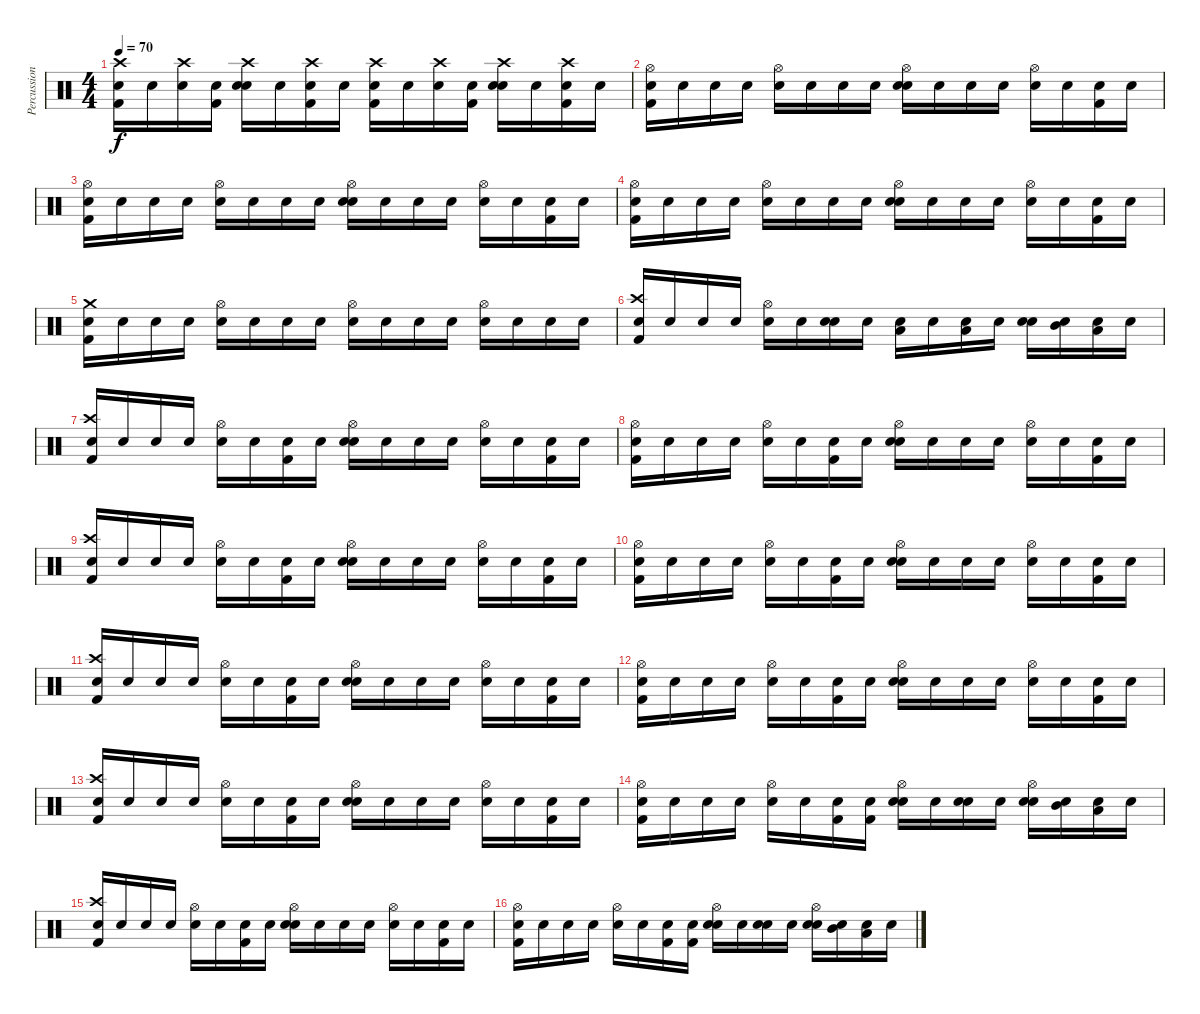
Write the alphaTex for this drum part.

\track ("Percussion" "Percussion") {instrument percussion}
\staff {score}
\articulation defaults
\ts (4 4)
\tempo 70
\clef neutral
\ks c
("Snare (hit)" "Crash high (hit)" "Kick (hit) 2").16{dy f} "Snare (hit)".16 ("Snare (hit)" "Crash high (hit)").16 ("Snare (hit)" "Kick (hit) 2").16 ("Snare (hit)" "Crash high (hit)" "Snare (hit) 2").16 "Snare (hit)".16 ("Snare (hit)" "Crash high (hit)" "Kick (hit) 2").16 "Snare (hit)".16 ("Snare (hit)" "Crash high (hit)" "Kick (hit) 2").16 "Snare (hit)".16 ("Snare (hit)" "Crash high (hit)").16 ("Snare (hit)" "Kick (hit) 2").16 ("Snare (hit)" "Crash high (hit)" "Snare (hit) 2").16 "Snare (hit)".16 ("Snare (hit)" "Crash high (hit)" "Kick (hit) 2").16 "Snare (hit)".16 |
("Snare (hit)" "Hi-Hat (open)" "Kick (hit) 2").16 "Snare (hit)".16 "Snare (hit)".16 "Snare (hit)".16 ("Snare (hit)" "Hi-Hat (open)").16 "Snare (hit)".16 "Snare (hit)".16 "Snare (hit)".16 ("Snare (hit)" "Hi-Hat (open)" "Snare (hit) 2").16 "Snare (hit)".16 "Snare (hit)".16 "Snare (hit)".16 ("Snare (hit)" "Hi-Hat (open)").16 "Snare (hit)".16 ("Snare (hit)" "Kick (hit) 2").16 "Snare (hit)".16 |
("Snare (hit)" "Hi-Hat (open)" "Kick (hit) 2").16 "Snare (hit)".16 "Snare (hit)".16 "Snare (hit)".16 ("Snare (hit)" "Hi-Hat (open)").16 "Snare (hit)".16 "Snare (hit)".16 "Snare (hit)".16 ("Snare (hit)" "Hi-Hat (open)" "Snare (hit) 2").16 "Snare (hit)".16 "Snare (hit)".16 "Snare (hit)".16 ("Snare (hit)" "Hi-Hat (open)").16 "Snare (hit)".16 ("Snare (hit)" "Kick (hit) 2").16 "Snare (hit)".16 |
("Snare (hit)" "Hi-Hat (open)" "Kick (hit) 2").16 "Snare (hit)".16 "Snare (hit)".16 "Snare (hit)".16 ("Snare (hit)" "Hi-Hat (open)").16 "Snare (hit)".16 "Snare (hit)".16 "Snare (hit)".16 ("Snare (hit)" "Hi-Hat (open)" "Snare (hit) 2").16 "Snare (hit)".16 "Snare (hit)".16 "Snare (hit)".16 ("Snare (hit)" "Hi-Hat (open)").16 "Snare (hit)".16 ("Snare (hit)" "Kick (hit) 2").16 "Snare (hit)".16 |
("Snare (hit)" "Crash medium (hit)" "Kick (hit) 2").16 "Snare (hit)".16 "Snare (hit)".16 "Snare (hit)".16 ("Snare (hit)" "Hi-Hat (open)").16 "Snare (hit)".16 "Snare (hit)".16 "Snare (hit)".16 ("Snare (hit)" "Hi-Hat (open)").16 "Snare (hit)".16 "Snare (hit)".16 "Snare (hit)".16 ("Snare (hit)" "Hi-Hat (open)").16 "Snare (hit)".16 "Snare (hit)".16 "Snare (hit)".16 |
("Snare (hit)" "Crash high (hit)" "Kick (hit) 2").16 "Snare (hit)".16 "Snare (hit)".16 "Snare (hit)".16 ("Snare (hit)" "Hi-Hat (open)").16 "Snare (hit)".16 ("Snare (hit)" "Snare (hit) 2").16 "Snare (hit)".16 ("Snare (hit)" "Low Tom (hit)").16 "Snare (hit)".16 ("Snare (hit)" "Low Tom (hit)").16 "Snare (hit)".16 ("Snare (hit)" "Snare (hit) 2").16 ("Snare (hit)" "Mid Tom (hit)").16 ("Snare (hit)" "Low Tom (hit)").16 "Snare (hit)".16 |
("Snare (hit)" "Crash high (hit)" "Kick (hit) 2").16 "Snare (hit)".16 "Snare (hit)".16 "Snare (hit)".16 ("Snare (hit)" "Hi-Hat (open)").16 "Snare (hit)".16 ("Snare (hit)" "Kick (hit) 2").16 "Snare (hit)".16 ("Snare (hit)" "Hi-Hat (open)" "Snare (hit) 2").16 "Snare (hit)".16 "Snare (hit)".16 "Snare (hit)".16 ("Snare (hit)" "Hi-Hat (open)").16 "Snare (hit)".16 ("Snare (hit)" "Kick (hit) 2").16 "Snare (hit)".16 |
("Snare (hit)" "Hi-Hat (open)" "Kick (hit) 2").16 "Snare (hit)".16 "Snare (hit)".16 "Snare (hit)".16 ("Snare (hit)" "Hi-Hat (open)").16 "Snare (hit)".16 ("Snare (hit)" "Kick (hit) 2").16 "Snare (hit)".16 ("Snare (hit)" "Hi-Hat (open)" "Snare (hit) 2").16 "Snare (hit)".16 "Snare (hit)".16 "Snare (hit)".16 ("Snare (hit)" "Hi-Hat (open)").16 "Snare (hit)".16 ("Snare (hit)" "Kick (hit) 2").16 "Snare (hit)".16 |
("Snare (hit)" "Crash high (hit)" "Kick (hit) 2").16 "Snare (hit)".16 "Snare (hit)".16 "Snare (hit)".16 ("Snare (hit)" "Hi-Hat (open)").16 "Snare (hit)".16 ("Snare (hit)" "Kick (hit) 2").16 "Snare (hit)".16 ("Snare (hit)" "Hi-Hat (open)" "Snare (hit) 2").16 "Snare (hit)".16 "Snare (hit)".16 "Snare (hit)".16 ("Snare (hit)" "Hi-Hat (open)").16 "Snare (hit)".16 ("Snare (hit)" "Kick (hit) 2").16 "Snare (hit)".16 |
("Snare (hit)" "Hi-Hat (open)" "Kick (hit) 2").16 "Snare (hit)".16 "Snare (hit)".16 "Snare (hit)".16 ("Snare (hit)" "Hi-Hat (open)").16 "Snare (hit)".16 ("Snare (hit)" "Kick (hit) 2").16 "Snare (hit)".16 ("Snare (hit)" "Hi-Hat (open)" "Snare (hit) 2").16 "Snare (hit)".16 "Snare (hit)".16 "Snare (hit)".16 ("Snare (hit)" "Hi-Hat (open)").16 "Snare (hit)".16 ("Snare (hit)" "Kick (hit) 2").16 "Snare (hit)".16 |
("Snare (hit)" "Crash high (hit)" "Kick (hit) 2").16 "Snare (hit)".16 "Snare (hit)".16 "Snare (hit)".16 ("Snare (hit)" "Hi-Hat (open)").16 "Snare (hit)".16 ("Snare (hit)" "Kick (hit) 2").16 "Snare (hit)".16 ("Snare (hit)" "Hi-Hat (open)" "Snare (hit) 2").16 "Snare (hit)".16 "Snare (hit)".16 "Snare (hit)".16 ("Snare (hit)" "Hi-Hat (open)").16 "Snare (hit)".16 ("Snare (hit)" "Kick (hit) 2").16 "Snare (hit)".16 |
("Snare (hit)" "Hi-Hat (open)" "Kick (hit) 2").16 "Snare (hit)".16 "Snare (hit)".16 "Snare (hit)".16 ("Snare (hit)" "Hi-Hat (open)").16 "Snare (hit)".16 ("Snare (hit)" "Kick (hit) 2").16 "Snare (hit)".16 ("Snare (hit)" "Hi-Hat (open)" "Snare (hit) 2").16 "Snare (hit)".16 "Snare (hit)".16 "Snare (hit)".16 ("Snare (hit)" "Hi-Hat (open)").16 "Snare (hit)".16 ("Snare (hit)" "Kick (hit) 2").16 "Snare (hit)".16 |
("Snare (hit)" "Crash high (hit)" "Kick (hit) 2").16 "Snare (hit)".16 "Snare (hit)".16 "Snare (hit)".16 ("Snare (hit)" "Hi-Hat (open)").16 "Snare (hit)".16 ("Snare (hit)" "Kick (hit) 2").16 "Snare (hit)".16 ("Snare (hit)" "Hi-Hat (open)" "Snare (hit) 2").16 "Snare (hit)".16 "Snare (hit)".16 "Snare (hit)".16 ("Snare (hit)" "Hi-Hat (open)").16 "Snare (hit)".16 ("Snare (hit)" "Kick (hit) 2").16 "Snare (hit)".16 |
("Snare (hit)" "Hi-Hat (open)" "Kick (hit) 2").16 "Snare (hit)".16 "Snare (hit)".16 "Snare (hit)".16 ("Snare (hit)" "Hi-Hat (open)").16 "Snare (hit)".16 ("Snare (hit)" "Kick (hit) 2").16 ("Snare (hit)" "Kick (hit) 2").16 ("Snare (hit)" "Hi-Hat (open)" "Snare (hit) 2").16 "Snare (hit)".16 ("Snare (hit)" "Snare (hit) 2").16 "Snare (hit)".16 ("Snare (hit)" "Hi-Hat (open)" "Snare (hit) 2").16 ("Snare (hit)" "Mid Tom (hit)").16 ("Snare (hit)" "Low Tom (hit)").16 "Snare (hit)".16 |
("Snare (hit)" "Crash high (hit)" "Kick (hit) 2").16 "Snare (hit)".16 "Snare (hit)".16 "Snare (hit)".16 ("Snare (hit)" "Hi-Hat (open)").16 "Snare (hit)".16 ("Snare (hit)" "Kick (hit) 2").16 "Snare (hit)".16 ("Snare (hit)" "Hi-Hat (open)" "Snare (hit) 2").16 "Snare (hit)".16 "Snare (hit)".16 "Snare (hit)".16 ("Snare (hit)" "Hi-Hat (open)").16 "Snare (hit)".16 ("Snare (hit)" "Kick (hit) 2").16 "Snare (hit)".16 |
("Snare (hit)" "Hi-Hat (open)" "Kick (hit) 2").16 "Snare (hit)".16 "Snare (hit)".16 "Snare (hit)".16 ("Snare (hit)" "Hi-Hat (open)").16 "Snare (hit)".16 ("Snare (hit)" "Kick (hit) 2").16 ("Snare (hit)" "Kick (hit) 2").16 ("Snare (hit)" "Hi-Hat (open)" "Snare (hit) 2").16 "Snare (hit)".16 ("Snare (hit)" "Snare (hit) 2").16 "Snare (hit)".16 ("Snare (hit)" "Hi-Hat (open)" "Snare (hit) 2").16 ("Snare (hit)" "Mid Tom (hit)").16 ("Snare (hit)" "Low Tom (hit)").16 "Snare (hit)".16
